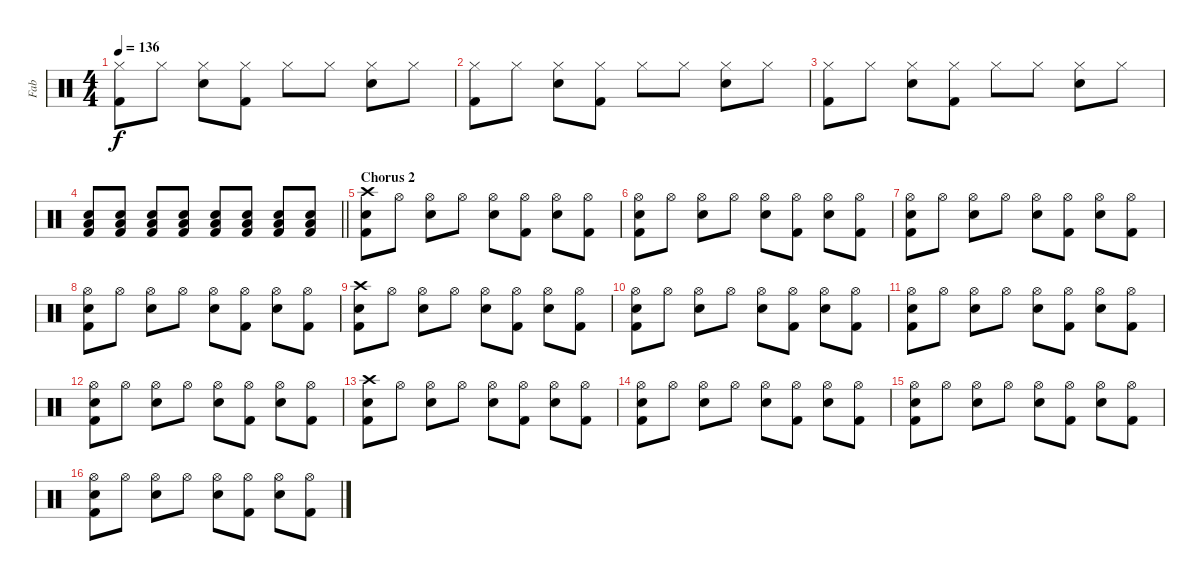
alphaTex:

\track ("Fab" "Fab") {instrument percussion}
\staff {score}
\articulation defaults
\ts (4 4)
\tempo 136
\clef neutral
\ks c
("Hi-Hat (closed)" "Kick (hit) 2").8{dy f} "Hi-Hat (closed)".8 ("Hi-Hat (closed)" "Snare (hit) 2").8 ("Hi-Hat (closed)" "Kick (hit) 2").8 "Hi-Hat (closed)".8 "Hi-Hat (closed)".8 ("Hi-Hat (closed)" "Snare (hit) 2").8 "Hi-Hat (closed)".8 |
("Hi-Hat (closed)" "Kick (hit) 2").8 "Hi-Hat (closed)".8 ("Hi-Hat (closed)" "Snare (hit) 2").8 ("Hi-Hat (closed)" "Kick (hit) 2").8 "Hi-Hat (closed)".8 "Hi-Hat (closed)".8 ("Hi-Hat (closed)" "Snare (hit) 2").8 "Hi-Hat (closed)".8 |
("Hi-Hat (closed)" "Kick (hit) 2").8 "Hi-Hat (closed)".8 ("Hi-Hat (closed)" "Snare (hit) 2").8 ("Hi-Hat (closed)" "Kick (hit) 2").8 "Hi-Hat (closed)".8 "Hi-Hat (closed)".8 ("Hi-Hat (closed)" "Snare (hit) 2").8 "Hi-Hat (closed)".8 |
\barLineRight lightlight
("Low Floor Tom (hit)" "Snare (hit) 2" "Kick (hit) 2").8 ("Low Floor Tom (hit)" "Snare (hit) 2" "Kick (hit) 2").8 ("Low Floor Tom (hit)" "Snare (hit) 2" "Kick (hit) 2").8 ("Low Floor Tom (hit)" "Snare (hit) 2" "Kick (hit) 2").8 ("Low Floor Tom (hit)" "Snare (hit) 2" "Kick (hit) 2").8 ("Low Floor Tom (hit)" "Snare (hit) 2" "Kick (hit) 2").8 ("Low Floor Tom (hit)" "Snare (hit) 2" "Kick (hit) 2").8 ("Low Floor Tom (hit)" "Snare (hit) 2" "Kick (hit) 2").8 |
\section ("" "Chorus 2")
("Crash high (hit)" "Snare (hit) 2" "Kick (hit) 2").8 "Hi-Hat (open)".8 ("Hi-Hat (open)" "Snare (hit) 2").8 "Hi-Hat (open)".8 ("Hi-Hat (open)" "Snare (hit) 2").8 ("Hi-Hat (open)" "Kick (hit) 2").8 ("Hi-Hat (open)" "Snare (hit) 2").8 ("Hi-Hat (open)" "Kick (hit) 2").8 |
("Hi-Hat (open)" "Snare (hit) 2" "Kick (hit) 2").8 "Hi-Hat (open)".8 ("Hi-Hat (open)" "Snare (hit) 2").8 "Hi-Hat (open)".8 ("Hi-Hat (open)" "Snare (hit) 2").8 ("Hi-Hat (open)" "Kick (hit) 2").8 ("Hi-Hat (open)" "Snare (hit) 2").8 ("Hi-Hat (open)" "Kick (hit) 2").8 |
("Hi-Hat (open)" "Snare (hit) 2" "Kick (hit) 2").8 "Hi-Hat (open)".8 ("Hi-Hat (open)" "Snare (hit) 2").8 "Hi-Hat (open)".8 ("Hi-Hat (open)" "Snare (hit) 2").8 ("Hi-Hat (open)" "Kick (hit) 2").8 ("Hi-Hat (open)" "Snare (hit) 2").8 ("Hi-Hat (open)" "Kick (hit) 2").8 |
("Hi-Hat (open)" "Snare (hit) 2" "Kick (hit) 2").8 "Hi-Hat (open)".8 ("Hi-Hat (open)" "Snare (hit) 2").8 "Hi-Hat (open)".8 ("Hi-Hat (open)" "Snare (hit) 2").8 ("Hi-Hat (open)" "Kick (hit) 2").8 ("Hi-Hat (open)" "Snare (hit) 2").8 ("Hi-Hat (open)" "Kick (hit) 2").8 |
("Crash high (hit)" "Snare (hit) 2" "Kick (hit) 2").8 "Hi-Hat (open)".8 ("Hi-Hat (open)" "Snare (hit) 2").8 "Hi-Hat (open)".8 ("Hi-Hat (open)" "Snare (hit) 2").8 ("Hi-Hat (open)" "Kick (hit) 2").8 ("Hi-Hat (open)" "Snare (hit) 2").8 ("Hi-Hat (open)" "Kick (hit) 2").8 |
("Hi-Hat (open)" "Snare (hit) 2" "Kick (hit) 2").8 "Hi-Hat (open)".8 ("Hi-Hat (open)" "Snare (hit) 2").8 "Hi-Hat (open)".8 ("Hi-Hat (open)" "Snare (hit) 2").8 ("Hi-Hat (open)" "Kick (hit) 2").8 ("Hi-Hat (open)" "Snare (hit) 2").8 ("Hi-Hat (open)" "Kick (hit) 2").8 |
("Hi-Hat (open)" "Snare (hit) 2" "Kick (hit) 2").8 "Hi-Hat (open)".8 ("Hi-Hat (open)" "Snare (hit) 2").8 "Hi-Hat (open)".8 ("Hi-Hat (open)" "Snare (hit) 2").8 ("Hi-Hat (open)" "Kick (hit) 2").8 ("Hi-Hat (open)" "Snare (hit) 2").8 ("Hi-Hat (open)" "Kick (hit) 2").8 |
("Hi-Hat (open)" "Snare (hit) 2" "Kick (hit) 2").8 "Hi-Hat (open)".8 ("Hi-Hat (open)" "Snare (hit) 2").8 "Hi-Hat (open)".8 ("Hi-Hat (open)" "Snare (hit) 2").8 ("Hi-Hat (open)" "Kick (hit) 2").8 ("Hi-Hat (open)" "Snare (hit) 2").8 ("Hi-Hat (open)" "Kick (hit) 2").8 |
("Crash high (hit)" "Snare (hit) 2" "Kick (hit) 2").8 "Hi-Hat (open)".8 ("Hi-Hat (open)" "Snare (hit) 2").8 "Hi-Hat (open)".8 ("Hi-Hat (open)" "Snare (hit) 2").8 ("Hi-Hat (open)" "Kick (hit) 2").8 ("Hi-Hat (open)" "Snare (hit) 2").8 ("Hi-Hat (open)" "Kick (hit) 2").8 |
("Hi-Hat (open)" "Snare (hit) 2" "Kick (hit) 2").8 "Hi-Hat (open)".8 ("Hi-Hat (open)" "Snare (hit) 2").8 "Hi-Hat (open)".8 ("Hi-Hat (open)" "Snare (hit) 2").8 ("Hi-Hat (open)" "Kick (hit) 2").8 ("Hi-Hat (open)" "Snare (hit) 2").8 ("Hi-Hat (open)" "Kick (hit) 2").8 |
("Hi-Hat (open)" "Snare (hit) 2" "Kick (hit) 2").8 "Hi-Hat (open)".8 ("Hi-Hat (open)" "Snare (hit) 2").8 "Hi-Hat (open)".8 ("Hi-Hat (open)" "Snare (hit) 2").8 ("Hi-Hat (open)" "Kick (hit) 2").8 ("Hi-Hat (open)" "Snare (hit) 2").8 ("Hi-Hat (open)" "Kick (hit) 2").8 |
("Hi-Hat (open)" "Snare (hit) 2" "Kick (hit) 2").8 "Hi-Hat (open)".8 ("Hi-Hat (open)" "Snare (hit) 2").8 "Hi-Hat (open)".8 ("Hi-Hat (open)" "Snare (hit) 2").8 ("Hi-Hat (open)" "Kick (hit) 2").8 ("Hi-Hat (open)" "Snare (hit) 2").8 ("Hi-Hat (open)" "Kick (hit) 2").8
